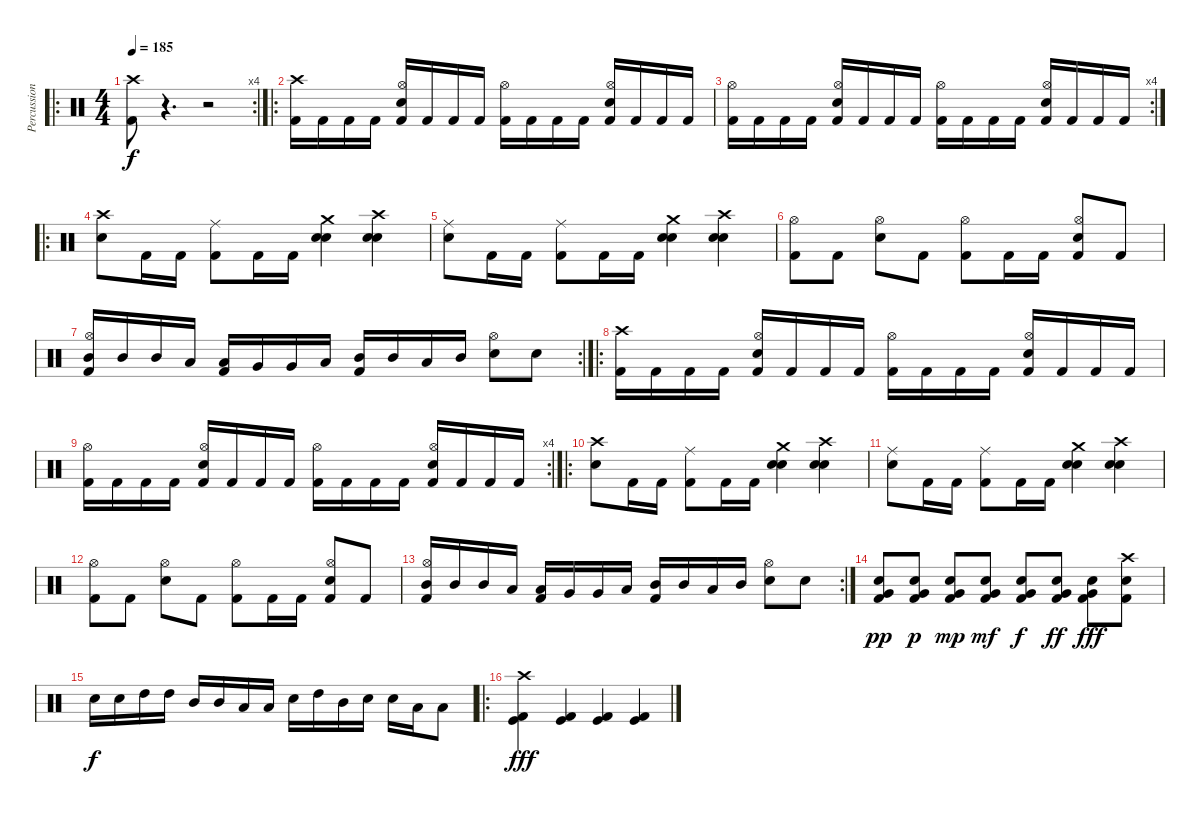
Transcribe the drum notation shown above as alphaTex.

\track ("Percussion" "Percussion") {instrument percussion}
\staff {score}
\articulation defaults
\ro
\rc 4
\ts (4 4)
\tempo 185
\clef neutral
\ks c
("Crash high (hit)" "Kick (hit) 2").8{dy f} r.4{d} r.2 |
\ro
("Crash high (hit)" "Kick (hit) 2").16 "Kick (hit) 2".16 "Kick (hit) 2".16 "Kick (hit) 2".16 ("Hi-Hat (open)" "Electric Snare (hit)" "Kick (hit) 2").16 "Kick (hit) 2".16 "Kick (hit) 2".16 "Kick (hit) 2".16 ("Hi-Hat (open)" "Kick (hit) 2").16 "Kick (hit) 2".16 "Kick (hit) 2".16 "Kick (hit) 2".16 ("Hi-Hat (open)" "Electric Snare (hit)" "Kick (hit) 2").16 "Kick (hit) 2".16 "Kick (hit) 2".16 "Kick (hit) 2".16 |
\rc 4
("Hi-Hat (open)" "Kick (hit) 2").16 "Kick (hit) 2".16 "Kick (hit) 2".16 "Kick (hit) 2".16 ("Hi-Hat (open)" "Electric Snare (hit)" "Kick (hit) 2").16 "Kick (hit) 2".16 "Kick (hit) 2".16 "Kick (hit) 2".16 ("Hi-Hat (open)" "Kick (hit) 2").16 "Kick (hit) 2".16 "Kick (hit) 2".16 "Kick (hit) 2".16 ("Hi-Hat (open)" "Electric Snare (hit)" "Kick (hit) 2").16 "Kick (hit) 2".16 "Kick (hit) 2".16 "Kick (hit) 2".16 |
\ro
("Crash high (hit)" "Electric Snare (hit)").8 "Kick (hit) 2".16 "Kick (hit) 2".16 ("Ride (middle)" "Kick (hit) 2").8 "Kick (hit) 2".16 "Kick (hit) 2".16 ("Crash medium (hit)" "Electric Snare (hit)" "Snare (hit) 2").4 ("Crash high (hit)" "Electric Snare (hit)" "Snare (hit) 2").4 |
("Ride (middle)" "Electric Snare (hit)").8 "Kick (hit) 2".16 "Kick (hit) 2".16 ("Ride (middle)" "Kick (hit) 2").8 "Kick (hit) 2".16 "Kick (hit) 2".16 ("Crash medium (hit)" "Electric Snare (hit)" "Snare (hit) 2").4 ("Crash high (hit)" "Electric Snare (hit)" "Snare (hit) 2").4 |
("Hi-Hat (open)" "Kick (hit) 2").8 "Kick (hit) 2".8 ("Hi-Hat (open)" "Electric Snare (hit)").8 "Kick (hit) 2".8 ("Hi-Hat (open)" "Kick (hit) 2").8 "Kick (hit) 2".16 "Kick (hit) 2".16 ("Hi-Hat (open)" "Electric Snare (hit)" "Kick (hit) 2").8 "Kick (hit) 2".8 |
\rc 2
("Hi-Hat (open)" "Mid Tom (hit)" "Kick (hit) 2").16 "Mid Tom (hit)".16 "Mid Tom (hit)".16 "Low Tom (hit)".16 ("Low Tom (hit)" "Kick (hit) 2").16 "Very Low Tom (hit)".16 "Very Low Tom (hit)".16 "Low Tom (hit)".16 ("Mid Tom (hit)" "Kick (hit) 2").16 "Mid Tom (hit)".16 "Low Tom (hit)".16 "Mid Tom (hit)".16 ("Hi-Hat (open)" "Electric Snare (hit)").8 "Electric Snare (hit)".8 |
\ro
("Crash high (hit)" "Kick (hit) 2").16 "Kick (hit) 2".16 "Kick (hit) 2".16 "Kick (hit) 2".16 ("Hi-Hat (open)" "Electric Snare (hit)" "Kick (hit) 2").16 "Kick (hit) 2".16 "Kick (hit) 2".16 "Kick (hit) 2".16 ("Hi-Hat (open)" "Kick (hit) 2").16 "Kick (hit) 2".16 "Kick (hit) 2".16 "Kick (hit) 2".16 ("Hi-Hat (open)" "Electric Snare (hit)" "Kick (hit) 2").16 "Kick (hit) 2".16 "Kick (hit) 2".16 "Kick (hit) 2".16 |
\rc 4
("Hi-Hat (open)" "Kick (hit) 2").16 "Kick (hit) 2".16 "Kick (hit) 2".16 "Kick (hit) 2".16 ("Hi-Hat (open)" "Electric Snare (hit)" "Kick (hit) 2").16 "Kick (hit) 2".16 "Kick (hit) 2".16 "Kick (hit) 2".16 ("Hi-Hat (open)" "Kick (hit) 2").16 "Kick (hit) 2".16 "Kick (hit) 2".16 "Kick (hit) 2".16 ("Hi-Hat (open)" "Electric Snare (hit)" "Kick (hit) 2").16 "Kick (hit) 2".16 "Kick (hit) 2".16 "Kick (hit) 2".16 |
\ro
("Crash high (hit)" "Electric Snare (hit)").8 "Kick (hit) 2".16 "Kick (hit) 2".16 ("Ride (middle)" "Kick (hit) 2").8 "Kick (hit) 2".16 "Kick (hit) 2".16 ("Crash medium (hit)" "Electric Snare (hit)" "Snare (hit) 2").4 ("Crash high (hit)" "Electric Snare (hit)" "Snare (hit) 2").4 |
("Ride (middle)" "Electric Snare (hit)").8 "Kick (hit) 2".16 "Kick (hit) 2".16 ("Ride (middle)" "Kick (hit) 2").8 "Kick (hit) 2".16 "Kick (hit) 2".16 ("Crash medium (hit)" "Electric Snare (hit)" "Snare (hit) 2").4 ("Crash high (hit)" "Electric Snare (hit)" "Snare (hit) 2").4 |
("Hi-Hat (open)" "Kick (hit) 2").8 "Kick (hit) 2".8 ("Hi-Hat (open)" "Electric Snare (hit)").8 "Kick (hit) 2".8 ("Hi-Hat (open)" "Kick (hit) 2").8 "Kick (hit) 2".16 "Kick (hit) 2".16 ("Hi-Hat (open)" "Electric Snare (hit)" "Kick (hit) 2").8 "Kick (hit) 2".8 |
\rc 2
("Hi-Hat (open)" "Mid Tom (hit)" "Kick (hit) 2").16 "Mid Tom (hit)".16 "Mid Tom (hit)".16 "Low Tom (hit)".16 ("Low Tom (hit)" "Kick (hit) 2").16 "Very Low Tom (hit)".16 "Very Low Tom (hit)".16 "Low Tom (hit)".16 ("Mid Tom (hit)" "Kick (hit) 2").16 "Mid Tom (hit)".16 "Low Tom (hit)".16 "Mid Tom (hit)".16 ("Hi-Hat (open)" "Electric Snare (hit)").8 "Electric Snare (hit)".8 |
("Very Low Tom (hit)" "Electric Snare (hit)" "Kick (hit) 2").8{dy pp} ("Very Low Tom (hit)" "Electric Snare (hit)" "Kick (hit) 2").8{dy p} ("Very Low Tom (hit)" "Electric Snare (hit)" "Kick (hit) 2").8{dy mp} ("Very Low Tom (hit)" "Electric Snare (hit)" "Kick (hit) 2").8{dy mf} ("Very Low Tom (hit)" "Electric Snare (hit)" "Kick (hit) 2").8{dy f} ("Very Low Tom (hit)" "Electric Snare (hit)" "Kick (hit) 2").8{dy ff} ("Very Low Tom (hit)" "Electric Snare (hit)" "Kick (hit) 2").8{dy fff} ("Crash high (hit)" "Electric Snare (hit)" "Kick (hit) 2").8 |
"Electric Snare (hit)".16{dy f} "Electric Snare (hit)".16 "High Tom (hit)".16 "High Tom (hit)".16 "Mid Tom (hit)".16 "Mid Tom (hit)".16 "Low Tom (hit)".16 "Low Tom (hit)".16 "Electric Snare (hit)".16 "High Tom (hit)".16 "Mid Tom (hit)".16 "Electric Snare (hit)".16 "Electric Snare (hit)".16 "Low Tom (hit)".16 "Low Tom (hit)".8 |
\ro
("Crash high (hit)" "Kick (hit)" "Kick (hit) 2").4{dy fff} ("Kick (hit)" "Kick (hit) 2").4 ("Kick (hit)" "Kick (hit) 2").4 ("Kick (hit)" "Kick (hit) 2").4
